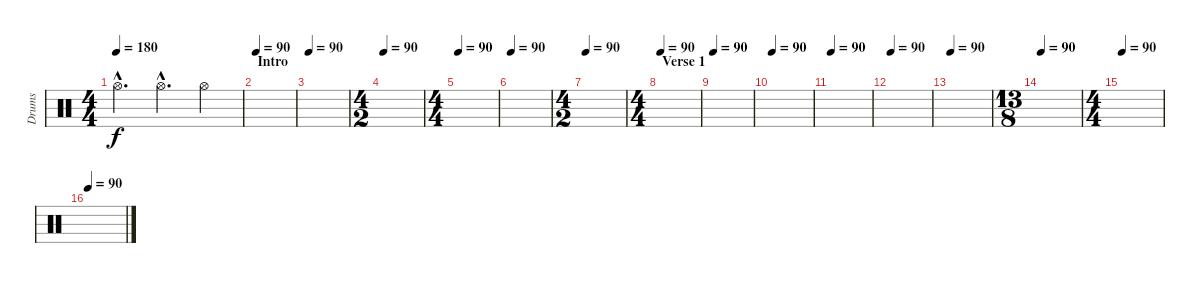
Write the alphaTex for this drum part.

\track ("Drums" "Drums") {instrument percussion}
\staff {score}
\articulation defaults
\ts (4 4)
\tempo 180
\clef neutral
\ks c "Hi-Hat (open)"{hac}.4{d dy f} "Hi-Hat (open)"{hac}.4{d} "Hi-Hat (open)".4
|
\section ("" "Intro")
\tempo 90
|
\tempo 90
|
\ts (4 2)
\tempo 90
|
\ts (4 4)
\tempo 90
|
\tempo 90
|
\ts (4 2)
\tempo 90
|
\ts (4 4)
\section ("" "Verse 1")
\tempo 90
|
\tempo 90
|
\tempo 90
|
\tempo 90
|
\tempo 90
|
\tempo 90
|
\ts (13 8)
\tempo 90
|
\ts (4 4)
\tempo 90
|
\tempo 90
